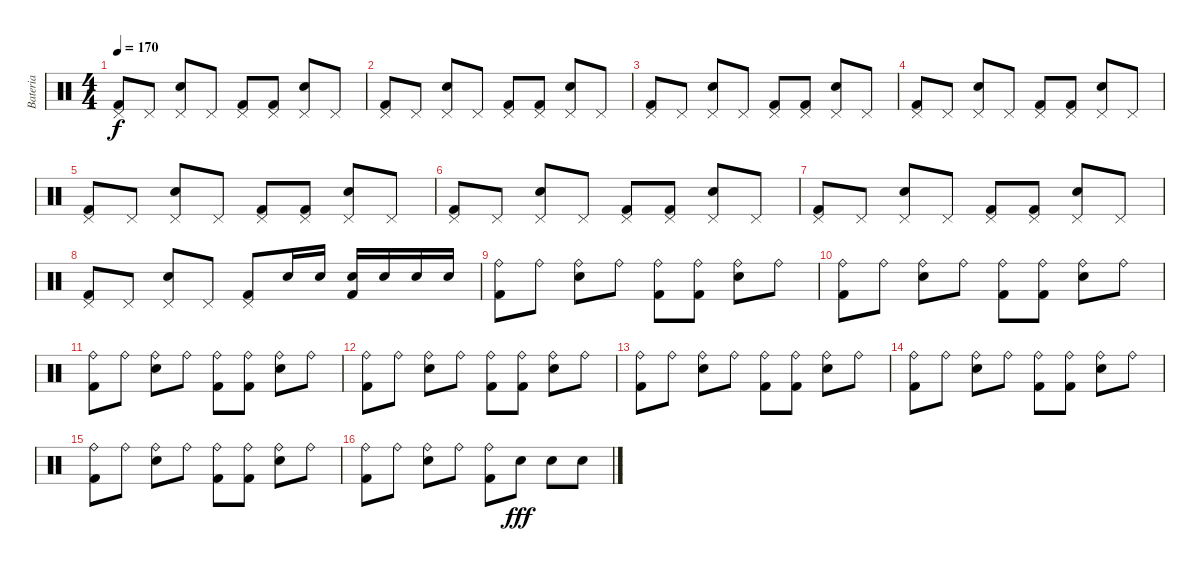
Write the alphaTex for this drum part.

\track ("Bateria" "Bateria") {instrument percussion}
\staff {score}
\articulation defaults
\ts (4 4)
\tempo 170
\clef neutral
\ks c
("Pedal Hi-Hat (hit)" "Kick (hit) 2").8{dy f volume 10} "Pedal Hi-Hat (hit)".8 ("Pedal Hi-Hat (hit)" "Snare (hit) 2").8 "Pedal Hi-Hat (hit)".8 ("Pedal Hi-Hat (hit)" "Kick (hit) 2").8 ("Pedal Hi-Hat (hit)" "Kick (hit) 2").8 ("Pedal Hi-Hat (hit)" "Snare (hit) 2").8 "Pedal Hi-Hat (hit)".8 |
("Pedal Hi-Hat (hit)" "Kick (hit) 2").8 "Pedal Hi-Hat (hit)".8 ("Pedal Hi-Hat (hit)" "Snare (hit) 2").8 "Pedal Hi-Hat (hit)".8 ("Pedal Hi-Hat (hit)" "Kick (hit) 2").8 ("Pedal Hi-Hat (hit)" "Kick (hit) 2").8 ("Pedal Hi-Hat (hit)" "Snare (hit) 2").8 "Pedal Hi-Hat (hit)".8 |
("Pedal Hi-Hat (hit)" "Kick (hit) 2").8{volume 11} "Pedal Hi-Hat (hit)".8 ("Pedal Hi-Hat (hit)" "Snare (hit) 2").8 "Pedal Hi-Hat (hit)".8 ("Pedal Hi-Hat (hit)" "Kick (hit) 2").8 ("Pedal Hi-Hat (hit)" "Kick (hit) 2").8 ("Pedal Hi-Hat (hit)" "Snare (hit) 2").8 "Pedal Hi-Hat (hit)".8 |
("Pedal Hi-Hat (hit)" "Kick (hit) 2").8 "Pedal Hi-Hat (hit)".8 ("Pedal Hi-Hat (hit)" "Snare (hit) 2").8 "Pedal Hi-Hat (hit)".8 ("Pedal Hi-Hat (hit)" "Kick (hit) 2").8 ("Pedal Hi-Hat (hit)" "Kick (hit) 2").8 ("Pedal Hi-Hat (hit)" "Snare (hit) 2").8 "Pedal Hi-Hat (hit)".8 |
("Pedal Hi-Hat (hit)" "Kick (hit) 2").8{volume 12} "Pedal Hi-Hat (hit)".8 ("Pedal Hi-Hat (hit)" "Snare (hit) 2").8 "Pedal Hi-Hat (hit)".8 ("Pedal Hi-Hat (hit)" "Kick (hit) 2").8 ("Pedal Hi-Hat (hit)" "Kick (hit) 2").8 ("Pedal Hi-Hat (hit)" "Snare (hit) 2").8 "Pedal Hi-Hat (hit)".8 |
("Pedal Hi-Hat (hit)" "Kick (hit) 2").8 "Pedal Hi-Hat (hit)".8 ("Pedal Hi-Hat (hit)" "Snare (hit) 2").8 "Pedal Hi-Hat (hit)".8 ("Pedal Hi-Hat (hit)" "Kick (hit) 2").8 ("Pedal Hi-Hat (hit)" "Kick (hit) 2").8 ("Pedal Hi-Hat (hit)" "Snare (hit) 2").8 "Pedal Hi-Hat (hit)".8 |
("Pedal Hi-Hat (hit)" "Kick (hit) 2").8{volume 13} "Pedal Hi-Hat (hit)".8 ("Pedal Hi-Hat (hit)" "Snare (hit) 2").8 "Pedal Hi-Hat (hit)".8 ("Pedal Hi-Hat (hit)" "Kick (hit) 2").8 ("Pedal Hi-Hat (hit)" "Kick (hit) 2").8 ("Pedal Hi-Hat (hit)" "Snare (hit) 2").8 "Pedal Hi-Hat (hit)".8 |
("Pedal Hi-Hat (hit)" "Kick (hit) 2").8 "Pedal Hi-Hat (hit)".8 ("Pedal Hi-Hat (hit)" "Snare (hit) 2").8 "Pedal Hi-Hat (hit)".8 ("Pedal Hi-Hat (hit)" "Kick (hit) 2").8 "Snare (hit) 2".16 "Snare (hit) 2".16 ("Snare (hit) 2" "Kick (hit) 2").16 "Snare (hit) 2".16 "Snare (hit) 2".16 "Snare (hit) 2".16 |
("Ride (bell)" "Kick (hit) 2").8 "Ride (bell)".8 ("Ride (bell)" "Snare (hit) 2").8 "Ride (bell)".8 ("Ride (bell)" "Kick (hit) 2").8 ("Ride (bell)" "Kick (hit) 2").8 ("Ride (bell)" "Snare (hit) 2").8 "Ride (bell)".8 |
("Ride (bell)" "Kick (hit) 2").8 "Ride (bell)".8 ("Ride (bell)" "Snare (hit) 2").8 "Ride (bell)".8 ("Ride (bell)" "Kick (hit) 2").8 ("Ride (bell)" "Kick (hit) 2").8 ("Ride (bell)" "Snare (hit) 2").8 "Ride (bell)".8 |
("Ride (bell)" "Kick (hit) 2").8 "Ride (bell)".8 ("Ride (bell)" "Snare (hit) 2").8 "Ride (bell)".8 ("Ride (bell)" "Kick (hit) 2").8 ("Ride (bell)" "Kick (hit) 2").8 ("Ride (bell)" "Snare (hit) 2").8 "Ride (bell)".8 |
("Ride (bell)" "Kick (hit) 2").8 "Ride (bell)".8 ("Ride (bell)" "Snare (hit) 2").8 "Ride (bell)".8 ("Ride (bell)" "Kick (hit) 2").8 ("Ride (bell)" "Kick (hit) 2").8 ("Ride (bell)" "Snare (hit) 2").8 "Ride (bell)".8 |
("Ride (bell)" "Kick (hit) 2").8 "Ride (bell)".8 ("Ride (bell)" "Snare (hit) 2").8 "Ride (bell)".8 ("Ride (bell)" "Kick (hit) 2").8 ("Ride (bell)" "Kick (hit) 2").8 ("Ride (bell)" "Snare (hit) 2").8 "Ride (bell)".8 |
("Ride (bell)" "Kick (hit) 2").8 "Ride (bell)".8 ("Ride (bell)" "Snare (hit) 2").8 "Ride (bell)".8 ("Ride (bell)" "Kick (hit) 2").8 ("Ride (bell)" "Kick (hit) 2").8 ("Ride (bell)" "Snare (hit) 2").8 "Ride (bell)".8 |
("Ride (bell)" "Kick (hit) 2").8 "Ride (bell)".8 ("Ride (bell)" "Snare (hit) 2").8 "Ride (bell)".8 ("Ride (bell)" "Kick (hit) 2").8 ("Ride (bell)" "Kick (hit) 2").8 ("Ride (bell)" "Snare (hit) 2").8 "Ride (bell)".8 |
("Ride (bell)" "Kick (hit) 2").8 "Ride (bell)".8 ("Ride (bell)" "Snare (hit) 2").8 "Ride (bell)".8 ("Ride (bell)" "Kick (hit) 2").8 "Snare (hit) 2".8{dy fff} "Snare (hit) 2".8 "Snare (hit) 2".8
